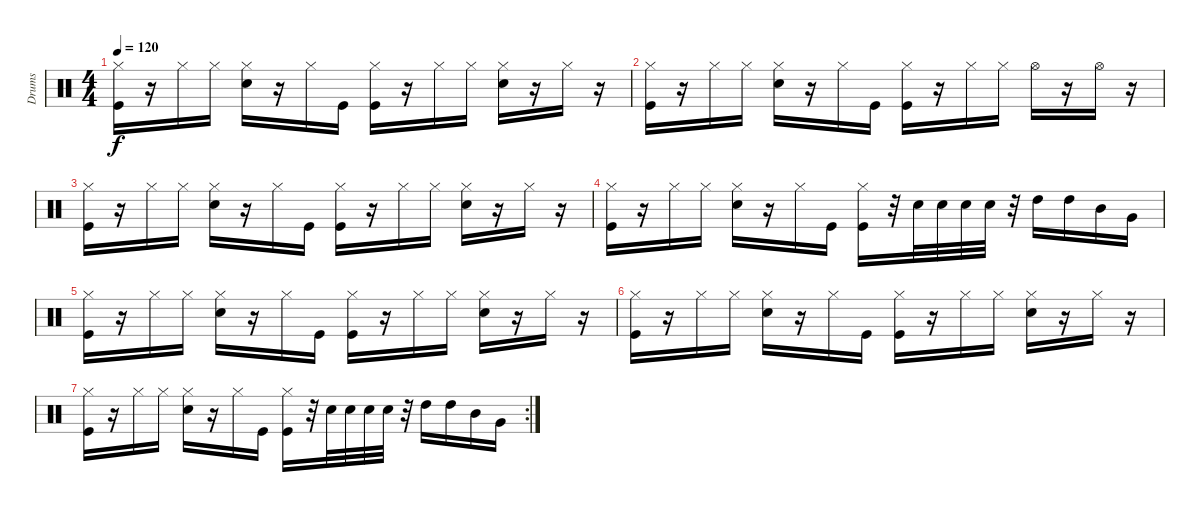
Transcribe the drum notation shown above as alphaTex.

\track ("Drums" "Drums") {instrument percussion}
\staff {score}
\articulation defaults
\ts (4 4)
\tempo 120
\clef neutral
\ks c
("Kick (hit)" "Hi-Hat (closed)").16{dy f} r.16 "Hi-Hat (closed)".16 "Hi-Hat (closed)".16 ("Snare (hit) 2" "Hi-Hat (closed)").16 r.16 "Hi-Hat (closed)".16 "Kick (hit)".16 ("Kick (hit)" "Hi-Hat (closed)").16 r.16 "Hi-Hat (closed)".16 "Hi-Hat (closed)".16 ("Snare (hit) 2" "Hi-Hat (closed)").16 r.16 "Hi-Hat (closed)".16 r.16 |
("Kick (hit)" "Hi-Hat (closed)").16 r.16 "Hi-Hat (closed)".16 "Hi-Hat (closed)".16 ("Snare (hit) 2" "Hi-Hat (closed)").16 r.16 "Hi-Hat (closed)".16 "Kick (hit)".16 ("Kick (hit)" "Hi-Hat (closed)").16 r.16 "Hi-Hat (closed)".16 "Hi-Hat (closed)".16 "Hi-Hat (open)".16 r.16 "Hi-Hat (open)".16 r.16 |
("Kick (hit)" "Hi-Hat (closed)").16 r.16 "Hi-Hat (closed)".16 "Hi-Hat (closed)".16 ("Snare (hit) 2" "Hi-Hat (closed)").16 r.16 "Hi-Hat (closed)".16 "Kick (hit)".16 ("Kick (hit)" "Hi-Hat (closed)").16 r.16 "Hi-Hat (closed)".16 "Hi-Hat (closed)".16 ("Snare (hit) 2" "Hi-Hat (closed)").16 r.16 "Hi-Hat (closed)".16 r.16 |
("Kick (hit)" "Hi-Hat (closed)").16 r.16 "Hi-Hat (closed)".16 "Hi-Hat (closed)".16 ("Snare (hit) 2" "Hi-Hat (closed)").16 r.16 "Hi-Hat (closed)".16 "Kick (hit)".16 ("Kick (hit)" "Hi-Hat (closed)").16 r.32 "Snare (hit) 2".32 "Snare (hit) 2".32 "Snare (hit) 2".32 "Snare (hit) 2".32 r.32 "High Tom (hit)".16 "High Tom (hit)".16 "Mid Tom (hit)".16 "Very Low Tom (hit)".16 |
("Kick (hit)" "Hi-Hat (closed)").16 r.16 "Hi-Hat (closed)".16 "Hi-Hat (closed)".16 ("Snare (hit) 2" "Hi-Hat (closed)").16 r.16 "Hi-Hat (closed)".16 "Kick (hit)".16 ("Kick (hit)" "Hi-Hat (closed)").16 r.16 "Hi-Hat (closed)".16 "Hi-Hat (closed)".16 ("Snare (hit) 2" "Hi-Hat (closed)").16 r.16 "Hi-Hat (closed)".16 r.16 |
("Kick (hit)" "Hi-Hat (closed)").16 r.16 "Hi-Hat (closed)".16 "Hi-Hat (closed)".16 ("Snare (hit) 2" "Hi-Hat (closed)").16 r.16 "Hi-Hat (closed)".16 "Kick (hit)".16 ("Kick (hit)" "Hi-Hat (closed)").16 r.16 "Hi-Hat (closed)".16 "Hi-Hat (closed)".16 ("Snare (hit) 2" "Hi-Hat (closed)").16 r.16 "Hi-Hat (closed)".16 r.16 |
\rc 2
("Kick (hit)" "Hi-Hat (closed)").16 r.16 "Hi-Hat (closed)".16 "Hi-Hat (closed)".16 ("Snare (hit) 2" "Hi-Hat (closed)").16 r.16 "Hi-Hat (closed)".16 "Kick (hit)".16 ("Kick (hit)" "Hi-Hat (closed)").16 r.32 "Snare (hit) 2".32 "Snare (hit) 2".32 "Snare (hit) 2".32 "Snare (hit) 2".32 r.32 "High Tom (hit)".16 "High Tom (hit)".16 "Mid Tom (hit)".16 "Very Low Tom (hit)".16
